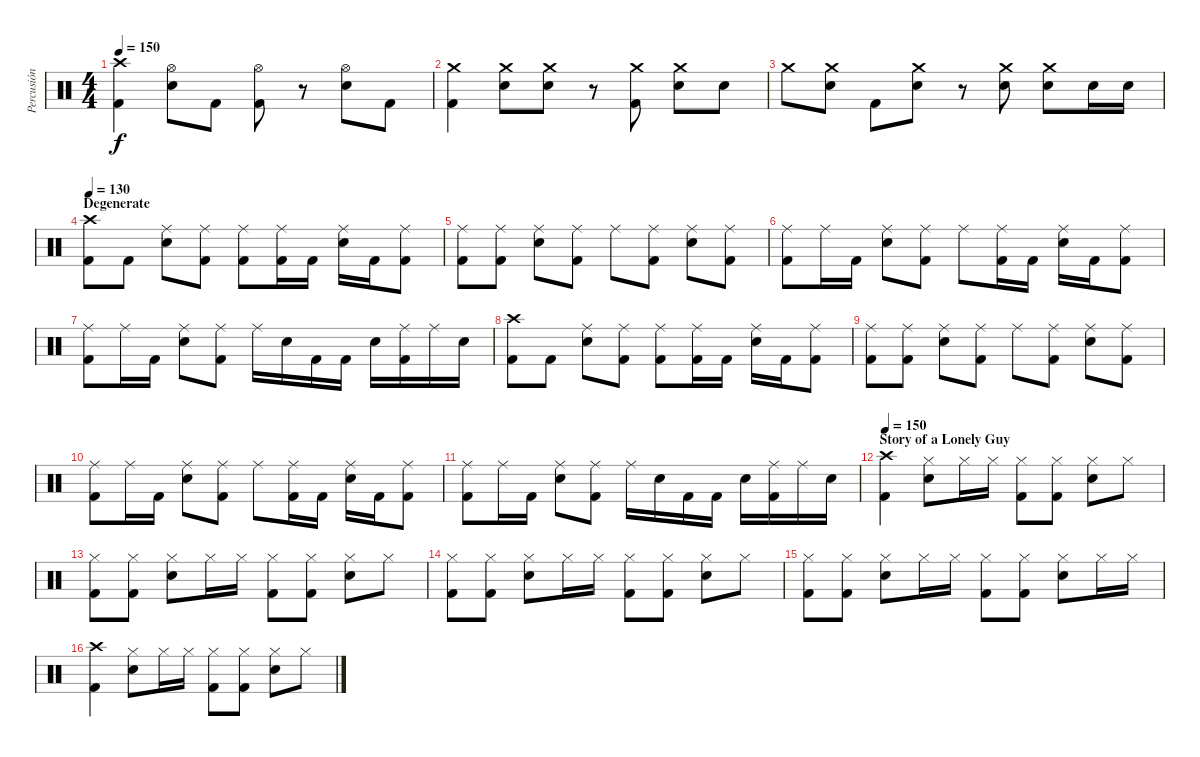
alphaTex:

\track ("Percusión" "Percusión") {instrument percussion}
\staff {score}
\articulation defaults
\ts (4 4)
\tempo 150
\clef neutral
\ks c
("Crash high (hit)" "Kick (hit) 2").4{dy f} ("Hi-Hat (open)" "Electric Snare (hit)").8 "Kick (hit) 2".8 ("Hi-Hat (open)" "Kick (hit) 2").8 r.8 ("Hi-Hat (open)" "Electric Snare (hit)").8 "Kick (hit) 2".8 |
("Crash medium (hit)" "Kick (hit) 2").4 ("Crash medium (hit)" "Electric Snare (hit)").8 ("Crash medium (hit)" "Electric Snare (hit)").8 r.8 ("Crash medium (hit)" "Kick (hit) 2").8 ("Crash medium (hit)" "Electric Snare (hit)").8 "Electric Snare (hit)".8 |
"Crash medium (hit)".8 ("Crash medium (hit)" "Electric Snare (hit)").8 "Kick (hit) 2".8 ("Crash medium (hit)" "Electric Snare (hit)").8 r.8 ("Crash medium (hit)" "Electric Snare (hit)").8 ("Crash medium (hit)" "Electric Snare (hit)").8 "Electric Snare (hit)".16 "Electric Snare (hit)".16 |
\section ("" "Degenerate")
\tempo 130
("Crash high (hit)" "Kick (hit) 2").8 "Kick (hit) 2".8 ("Ride (middle)" "Electric Snare (hit)").8 ("Ride (middle)" "Kick (hit) 2").8 ("Ride (middle)" "Kick (hit) 2").8 ("Ride (middle)" "Kick (hit) 2").16 "Kick (hit) 2".16 ("Ride (middle)" "Electric Snare (hit)").16 "Kick (hit) 2".16 ("Ride (middle)" "Kick (hit) 2").8 |
("Ride (middle)" "Kick (hit) 2").8 ("Ride (middle)" "Kick (hit) 2").8 ("Ride (middle)" "Electric Snare (hit)").8 ("Ride (middle)" "Kick (hit) 2").8 "Ride (middle)".8 ("Ride (middle)" "Kick (hit) 2").8 ("Ride (middle)" "Electric Snare (hit)").8 ("Ride (middle)" "Kick (hit) 2").8 |
("Ride (middle)" "Kick (hit) 2").8 "Ride (middle)".16 "Kick (hit) 2".16 ("Ride (middle)" "Electric Snare (hit)").8 ("Ride (middle)" "Kick (hit) 2").8 "Ride (middle)".8 ("Ride (middle)" "Kick (hit) 2").16 "Kick (hit) 2".16 ("Ride (middle)" "Electric Snare (hit)").16 "Kick (hit) 2".16 ("Ride (middle)" "Kick (hit) 2").8 |
("Ride (middle)" "Kick (hit) 2").8 "Ride (middle)".16 "Kick (hit) 2".16 ("Ride (middle)" "Electric Snare (hit)").8 ("Ride (middle)" "Kick (hit) 2").8 "Ride (middle)".16 "Electric Snare (hit)".16 "Kick (hit) 2".16 "Kick (hit) 2".16 "Electric Snare (hit)".16 ("Ride (middle)" "Kick (hit) 2").16 "Ride (middle)".16 "Electric Snare (hit)".16 |
("Crash high (hit)" "Kick (hit) 2").8 "Kick (hit) 2".8 ("Ride (middle)" "Electric Snare (hit)").8 ("Ride (middle)" "Kick (hit) 2").8 ("Ride (middle)" "Kick (hit) 2").8 ("Ride (middle)" "Kick (hit) 2").16 "Kick (hit) 2".16 ("Ride (middle)" "Electric Snare (hit)").16 "Kick (hit) 2".16 ("Ride (middle)" "Kick (hit) 2").8 |
("Ride (middle)" "Kick (hit) 2").8 ("Ride (middle)" "Kick (hit) 2").8 ("Ride (middle)" "Electric Snare (hit)").8 ("Ride (middle)" "Kick (hit) 2").8 "Ride (middle)".8 ("Ride (middle)" "Kick (hit) 2").8 ("Ride (middle)" "Electric Snare (hit)").8 ("Ride (middle)" "Kick (hit) 2").8 |
("Ride (middle)" "Kick (hit) 2").8 "Ride (middle)".16 "Kick (hit) 2".16 ("Ride (middle)" "Electric Snare (hit)").8 ("Ride (middle)" "Kick (hit) 2").8 "Ride (middle)".8 ("Ride (middle)" "Kick (hit) 2").16 "Kick (hit) 2".16 ("Ride (middle)" "Electric Snare (hit)").16 "Kick (hit) 2".16 ("Ride (middle)" "Kick (hit) 2").8 |
("Ride (middle)" "Kick (hit) 2").8 "Ride (middle)".16 "Kick (hit) 2".16 ("Ride (middle)" "Electric Snare (hit)").8 ("Ride (middle)" "Kick (hit) 2").8 "Ride (middle)".16 "Electric Snare (hit)".16 "Kick (hit) 2".16 "Kick (hit) 2".16 "Electric Snare (hit)".16 ("Ride (middle)" "Kick (hit) 2").16 "Ride (middle)".16 "Electric Snare (hit)".16 |
\section ("" "Story of a Lonely Guy")
\tempo 150
("Crash high (hit)" "Kick (hit) 2").4 ("Hi-Hat (closed)" "Electric Snare (hit)").8 "Hi-Hat (closed)".16 "Hi-Hat (closed)".16 ("Hi-Hat (closed)" "Kick (hit) 2").8 ("Hi-Hat (closed)" "Kick (hit) 2").8 ("Hi-Hat (closed)" "Electric Snare (hit)").8 "Hi-Hat (closed)".8 |
("Hi-Hat (closed)" "Kick (hit) 2").8 ("Hi-Hat (closed)" "Kick (hit) 2").8 ("Hi-Hat (closed)" "Electric Snare (hit)").8 "Hi-Hat (closed)".16 "Hi-Hat (closed)".16 ("Hi-Hat (closed)" "Kick (hit) 2").8 ("Hi-Hat (closed)" "Kick (hit) 2").8 ("Hi-Hat (closed)" "Electric Snare (hit)").8 "Hi-Hat (closed)".8 |
("Hi-Hat (closed)" "Kick (hit) 2").8 ("Hi-Hat (closed)" "Kick (hit) 2").8 ("Hi-Hat (closed)" "Electric Snare (hit)").8 "Hi-Hat (closed)".16 "Hi-Hat (closed)".16 ("Hi-Hat (closed)" "Kick (hit) 2").8 ("Hi-Hat (closed)" "Kick (hit) 2").8 ("Hi-Hat (closed)" "Electric Snare (hit)").8 "Hi-Hat (closed)".8 |
("Hi-Hat (closed)" "Kick (hit) 2").8 ("Hi-Hat (closed)" "Kick (hit) 2").8 ("Hi-Hat (closed)" "Electric Snare (hit)").8 "Hi-Hat (closed)".16 "Hi-Hat (closed)".16 ("Hi-Hat (closed)" "Kick (hit) 2").8 ("Hi-Hat (closed)" "Kick (hit) 2").8 ("Hi-Hat (closed)" "Electric Snare (hit)").8 "Hi-Hat (closed)".16 "Hi-Hat (closed)".16 |
("Crash high (hit)" "Kick (hit) 2").4 ("Hi-Hat (closed)" "Electric Snare (hit)").8 "Hi-Hat (closed)".16 "Hi-Hat (closed)".16 ("Hi-Hat (closed)" "Kick (hit) 2").8 ("Hi-Hat (closed)" "Kick (hit) 2").8 ("Hi-Hat (closed)" "Electric Snare (hit)").8 "Hi-Hat (closed)".8
